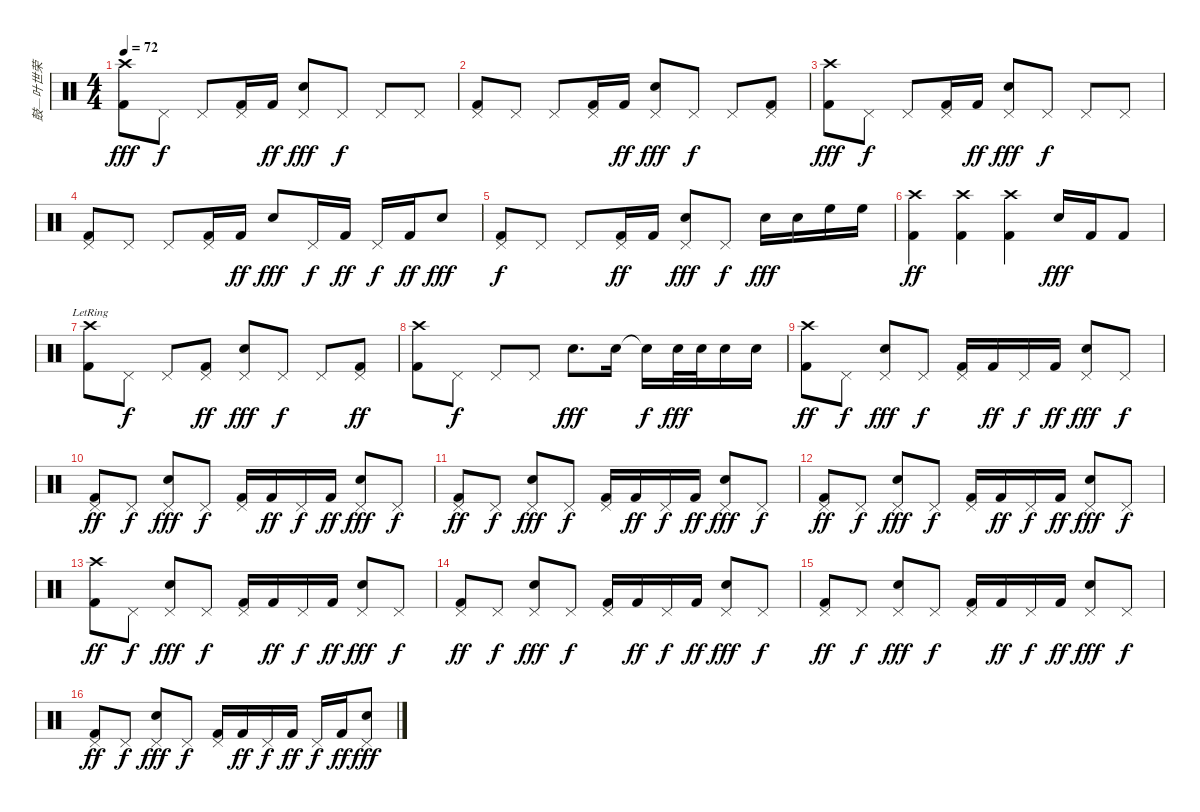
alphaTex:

\track ("鼓—叶世荣" "鼓—叶世荣") {instrument percussion}
\staff {score}
\articulation defaults
\ts (4 4)
\tempo 72
\clef neutral
\ks c
("Crash high (hit)" "Kick (hit) 2").8{dy fff} "Pedal Hi-Hat (hit)".8{dy f} "Pedal Hi-Hat (hit)".8 ("Pedal Hi-Hat (hit)" "Kick (hit) 2").16 "Kick (hit) 2".16{dy ff} ("Pedal Hi-Hat (hit)" "Electric Snare (hit)").8{dy fff} "Pedal Hi-Hat (hit)".8{dy f} "Pedal Hi-Hat (hit)".8 "Pedal Hi-Hat (hit)".8 |
("Pedal Hi-Hat (hit)" "Kick (hit) 2").8 "Pedal Hi-Hat (hit)".8 "Pedal Hi-Hat (hit)".8 ("Pedal Hi-Hat (hit)" "Kick (hit) 2").16 "Kick (hit) 2".16{dy ff} ("Pedal Hi-Hat (hit)" "Electric Snare (hit)").8{dy fff} "Pedal Hi-Hat (hit)".8{dy f} "Pedal Hi-Hat (hit)".8 ("Pedal Hi-Hat (hit)" "Kick (hit) 2").8 |
("Crash high (hit)" "Kick (hit) 2").8{dy fff} "Pedal Hi-Hat (hit)".8{dy f} "Pedal Hi-Hat (hit)".8 ("Pedal Hi-Hat (hit)" "Kick (hit) 2").16 "Kick (hit) 2".16{dy ff} ("Pedal Hi-Hat (hit)" "Electric Snare (hit)").8{dy fff} "Pedal Hi-Hat (hit)".8{dy f} "Pedal Hi-Hat (hit)".8 "Pedal Hi-Hat (hit)".8 |
("Pedal Hi-Hat (hit)" "Kick (hit) 2").8 "Pedal Hi-Hat (hit)".8 "Pedal Hi-Hat (hit)".8 ("Pedal Hi-Hat (hit)" "Kick (hit) 2").16 "Kick (hit) 2".16{dy ff} "Electric Snare (hit)".8{dy fff} "Pedal Hi-Hat (hit)".16{dy f} "Kick (hit) 2".16{dy ff} "Pedal Hi-Hat (hit)".16{dy f} "Kick (hit) 2".16{dy ff} "Electric Snare (hit)".8{dy fff} |
("Pedal Hi-Hat (hit)" "Kick (hit) 2").8{dy f} "Pedal Hi-Hat (hit)".8 "Pedal Hi-Hat (hit)".8 ("Pedal Hi-Hat (hit)" "Kick (hit) 2").16{dy ff} "Kick (hit) 2".16 ("Pedal Hi-Hat (hit)" "Electric Snare (hit)").8{dy fff} "Pedal Hi-Hat (hit)".8{dy f} "Electric Snare (hit)".16{dy fff} "Electric Snare (hit)".16 "High Floor Tom (hit)".16 "High Floor Tom (hit)".16 |
("Crash high (hit)" "Kick (hit) 2").4{dy ff} ("Crash high (hit)" "Kick (hit) 2").4 ("Crash high (hit)" "Kick (hit) 2").4 "Electric Snare (hit)".16{dy fff} "Kick (hit) 2".16 "Kick (hit) 2".8 |
("Crash high (hit)"{lr} "Kick (hit) 2").8 "Pedal Hi-Hat (hit)".8{dy f} "Pedal Hi-Hat (hit)".8 ("Pedal Hi-Hat (hit)" "Kick (hit) 2").8{dy ff} ("Pedal Hi-Hat (hit)" "Electric Snare (hit)").8{dy fff} "Pedal Hi-Hat (hit)".8{dy f} "Pedal Hi-Hat (hit)".8 ("Pedal Hi-Hat (hit)" "Kick (hit) 2").8{dy ff} |
("Crash high (hit)" "Kick (hit) 2").8 "Pedal Hi-Hat (hit)".8{dy f} "Pedal Hi-Hat (hit)".8 "Pedal Hi-Hat (hit)".8 "Electric Snare (hit)".8{d dy fff} "Electric Snare (hit)".16 "Snare (hit)"{t}.16{dy f} "Electric Snare (hit)".32{dy fff} "Electric Snare (hit)".32 "Electric Snare (hit)".16 "Electric Snare (hit)".16 |
("Crash high (hit)" "Kick (hit) 2").8{dy ff} "Pedal Hi-Hat (hit)".8{dy f} ("Pedal Hi-Hat (hit)" "Electric Snare (hit)").8{dy fff} "Pedal Hi-Hat (hit)".8{dy f} ("Pedal Hi-Hat (hit)" "Kick (hit) 2").16 "Kick (hit) 2".16{dy ff} "Pedal Hi-Hat (hit)".16{dy f} "Kick (hit) 2".16{dy ff} ("Pedal Hi-Hat (hit)" "Electric Snare (hit)").8{dy fff} "Pedal Hi-Hat (hit)".8{dy f} |
("Pedal Hi-Hat (hit)" "Kick (hit) 2").8{dy ff} "Pedal Hi-Hat (hit)".8{dy f} ("Pedal Hi-Hat (hit)" "Electric Snare (hit)").8{dy fff} "Pedal Hi-Hat (hit)".8{dy f} ("Pedal Hi-Hat (hit)" "Kick (hit) 2").16 "Kick (hit) 2".16{dy ff} "Pedal Hi-Hat (hit)".16{dy f} "Kick (hit) 2".16{dy ff} ("Pedal Hi-Hat (hit)" "Electric Snare (hit)").8{dy fff} "Pedal Hi-Hat (hit)".8{dy f} |
("Pedal Hi-Hat (hit)" "Kick (hit) 2").8{dy ff} "Pedal Hi-Hat (hit)".8{dy f} ("Pedal Hi-Hat (hit)" "Electric Snare (hit)").8{dy fff} "Pedal Hi-Hat (hit)".8{dy f} ("Pedal Hi-Hat (hit)" "Kick (hit) 2").16 "Kick (hit) 2".16{dy ff} "Pedal Hi-Hat (hit)".16{dy f} "Kick (hit) 2".16{dy ff} ("Pedal Hi-Hat (hit)" "Electric Snare (hit)").8{dy fff} "Pedal Hi-Hat (hit)".8{dy f} |
("Pedal Hi-Hat (hit)" "Kick (hit) 2").8{dy ff} "Pedal Hi-Hat (hit)".8{dy f} ("Pedal Hi-Hat (hit)" "Electric Snare (hit)").8{dy fff} "Pedal Hi-Hat (hit)".8{dy f} ("Pedal Hi-Hat (hit)" "Kick (hit) 2").16 "Kick (hit) 2".16{dy ff} "Pedal Hi-Hat (hit)".16{dy f} "Kick (hit) 2".16{dy ff} ("Pedal Hi-Hat (hit)" "Electric Snare (hit)").8{dy fff} "Pedal Hi-Hat (hit)".8{dy f} |
("Crash high (hit)" "Kick (hit) 2").8{dy ff} "Pedal Hi-Hat (hit)".8{dy f} ("Pedal Hi-Hat (hit)" "Electric Snare (hit)").8{dy fff} "Pedal Hi-Hat (hit)".8{dy f} ("Pedal Hi-Hat (hit)" "Kick (hit) 2").16 "Kick (hit) 2".16{dy ff} "Pedal Hi-Hat (hit)".16{dy f} "Kick (hit) 2".16{dy ff} ("Pedal Hi-Hat (hit)" "Electric Snare (hit)").8{dy fff} "Pedal Hi-Hat (hit)".8{dy f} |
("Pedal Hi-Hat (hit)" "Kick (hit) 2").8{dy ff} "Pedal Hi-Hat (hit)".8{dy f} ("Pedal Hi-Hat (hit)" "Electric Snare (hit)").8{dy fff} "Pedal Hi-Hat (hit)".8{dy f} ("Pedal Hi-Hat (hit)" "Kick (hit) 2").16 "Kick (hit) 2".16{dy ff} "Pedal Hi-Hat (hit)".16{dy f} "Kick (hit) 2".16{dy ff} ("Pedal Hi-Hat (hit)" "Electric Snare (hit)").8{dy fff} "Pedal Hi-Hat (hit)".8{dy f} |
("Pedal Hi-Hat (hit)" "Kick (hit) 2").8{dy ff} "Pedal Hi-Hat (hit)".8{dy f} ("Pedal Hi-Hat (hit)" "Electric Snare (hit)").8{dy fff} "Pedal Hi-Hat (hit)".8{dy f} ("Pedal Hi-Hat (hit)" "Kick (hit) 2").16 "Kick (hit) 2".16{dy ff} "Pedal Hi-Hat (hit)".16{dy f} "Kick (hit) 2".16{dy ff} ("Pedal Hi-Hat (hit)" "Electric Snare (hit)").8{dy fff} "Pedal Hi-Hat (hit)".8{dy f} |
("Pedal Hi-Hat (hit)" "Kick (hit) 2").8{dy ff} "Pedal Hi-Hat (hit)".8{dy f} ("Pedal Hi-Hat (hit)" "Electric Snare (hit)").8{dy fff} "Pedal Hi-Hat (hit)".8{dy f} ("Pedal Hi-Hat (hit)" "Kick (hit) 2").16 "Kick (hit) 2".16{dy ff} "Pedal Hi-Hat (hit)".16{dy f} "Kick (hit) 2".16{dy ff} "Pedal Hi-Hat (hit)".16{dy f} "Kick (hit) 2".16{dy ff} ("Pedal Hi-Hat (hit)" "Electric Snare (hit)").8{dy fff}
